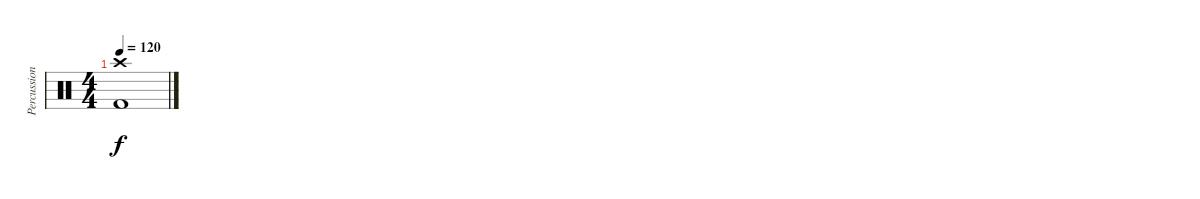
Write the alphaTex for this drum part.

\track ("Percussion" "Percussion") {instrument percussion}
\staff {score}
\articulation defaults
\ts (4 4)
\tempo 120
\clef neutral
\ks c
("Crash high (hit)" "Kick (hit) 2").1{dy f}
